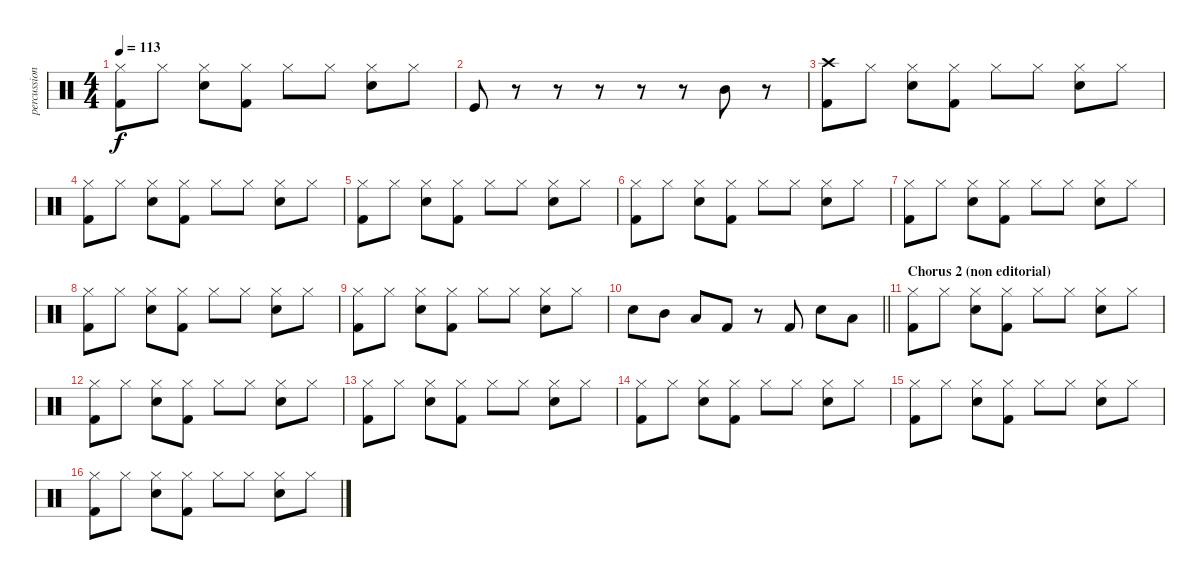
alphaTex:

\track ("percussion" "percussion") {instrument percussion}
\staff {score}
\articulation defaults
\ts (4 4)
\tempo 113
\clef neutral
\ks c
("Hi-Hat (closed)" "Kick (hit) 2").8{dy f} "Hi-Hat (closed)".8 ("Snare (hit) 2" "Hi-Hat (closed)").8 ("Hi-Hat (closed)" "Kick (hit) 2").8 "Hi-Hat (closed)".8 "Hi-Hat (closed)".8 ("Snare (hit) 2" "Hi-Hat (closed)").8 "Hi-Hat (closed)".8 |
"Kick (hit)".8 r.8 r.8 r.8 r.8 r.8 "Mid Tom (hit)".8 r.8 |
("Crash high (hit)" "Kick (hit) 2").8 "Hi-Hat (closed)".8 ("Snare (hit) 2" "Hi-Hat (closed)").8 ("Hi-Hat (closed)" "Kick (hit) 2").8 "Hi-Hat (closed)".8 "Hi-Hat (closed)".8 ("Snare (hit) 2" "Hi-Hat (closed)").8 "Hi-Hat (closed)".8 |
("Hi-Hat (closed)" "Kick (hit) 2").8 "Hi-Hat (closed)".8 ("Snare (hit) 2" "Hi-Hat (closed)").8 ("Hi-Hat (closed)" "Kick (hit) 2").8 "Hi-Hat (closed)".8 "Hi-Hat (closed)".8 ("Snare (hit) 2" "Hi-Hat (closed)").8 "Hi-Hat (closed)".8 |
("Hi-Hat (closed)" "Kick (hit) 2").8 "Hi-Hat (closed)".8 ("Snare (hit) 2" "Hi-Hat (closed)").8 ("Hi-Hat (closed)" "Kick (hit) 2").8 "Hi-Hat (closed)".8 "Hi-Hat (closed)".8 ("Snare (hit) 2" "Hi-Hat (closed)").8 "Hi-Hat (closed)".8 |
("Hi-Hat (closed)" "Kick (hit) 2").8 "Hi-Hat (closed)".8 ("Snare (hit) 2" "Hi-Hat (closed)").8 ("Hi-Hat (closed)" "Kick (hit) 2").8 "Hi-Hat (closed)".8 "Hi-Hat (closed)".8 ("Snare (hit) 2" "Hi-Hat (closed)").8 "Hi-Hat (closed)".8 |
("Hi-Hat (closed)" "Kick (hit) 2").8 "Hi-Hat (closed)".8 ("Snare (hit) 2" "Hi-Hat (closed)").8 ("Hi-Hat (closed)" "Kick (hit) 2").8 "Hi-Hat (closed)".8 "Hi-Hat (closed)".8 ("Snare (hit) 2" "Hi-Hat (closed)").8 "Hi-Hat (closed)".8 |
("Hi-Hat (closed)" "Kick (hit) 2").8 "Hi-Hat (closed)".8 ("Snare (hit) 2" "Hi-Hat (closed)").8 ("Hi-Hat (closed)" "Kick (hit) 2").8 "Hi-Hat (closed)".8 "Hi-Hat (closed)".8 ("Snare (hit) 2" "Hi-Hat (closed)").8 "Hi-Hat (closed)".8 |
("Hi-Hat (closed)" "Kick (hit) 2").8 "Hi-Hat (closed)".8 ("Snare (hit) 2" "Hi-Hat (closed)").8 ("Hi-Hat (closed)" "Kick (hit) 2").8 "Hi-Hat (closed)".8 "Hi-Hat (closed)".8 ("Snare (hit) 2" "Hi-Hat (closed)").8 "Hi-Hat (closed)".8 |
\barLineRight lightlight "Snare (hit) 2".8 "Mid Tom (hit)".8 "Low Tom (hit)".8 "Kick (hit) 2".8
r.8 "Kick (hit) 2".8 "Snare (hit) 2".8 "Low Tom (hit)".8 |
\section ("" "Chorus 2 (non editorial)")
("Hi-Hat (closed)" "Kick (hit) 2").8 "Hi-Hat (closed)".8 ("Snare (hit) 2" "Hi-Hat (closed)").8 ("Hi-Hat (closed)" "Kick (hit) 2").8 "Hi-Hat (closed)".8 "Hi-Hat (closed)".8 ("Snare (hit) 2" "Hi-Hat (closed)").8 "Hi-Hat (closed)".8 |
("Hi-Hat (closed)" "Kick (hit) 2").8 "Hi-Hat (closed)".8 ("Snare (hit) 2" "Hi-Hat (closed)").8 ("Hi-Hat (closed)" "Kick (hit) 2").8 "Hi-Hat (closed)".8 "Hi-Hat (closed)".8 ("Snare (hit) 2" "Hi-Hat (closed)").8 "Hi-Hat (closed)".8 |
("Hi-Hat (closed)" "Kick (hit) 2").8 "Hi-Hat (closed)".8 ("Snare (hit) 2" "Hi-Hat (closed)").8 ("Hi-Hat (closed)" "Kick (hit) 2").8 "Hi-Hat (closed)".8 "Hi-Hat (closed)".8 ("Snare (hit) 2" "Hi-Hat (closed)").8 "Hi-Hat (closed)".8 |
("Hi-Hat (closed)" "Kick (hit) 2").8 "Hi-Hat (closed)".8 ("Snare (hit) 2" "Hi-Hat (closed)").8 ("Hi-Hat (closed)" "Kick (hit) 2").8 "Hi-Hat (closed)".8 "Hi-Hat (closed)".8 ("Snare (hit) 2" "Hi-Hat (closed)").8 "Hi-Hat (closed)".8 |
("Hi-Hat (closed)" "Kick (hit) 2").8 "Hi-Hat (closed)".8 ("Snare (hit) 2" "Hi-Hat (closed)").8 ("Hi-Hat (closed)" "Kick (hit) 2").8 "Hi-Hat (closed)".8 "Hi-Hat (closed)".8 ("Snare (hit) 2" "Hi-Hat (closed)").8 "Hi-Hat (closed)".8 |
("Hi-Hat (closed)" "Kick (hit) 2").8 "Hi-Hat (closed)".8 ("Snare (hit) 2" "Hi-Hat (closed)").8 ("Hi-Hat (closed)" "Kick (hit) 2").8 "Hi-Hat (closed)".8 "Hi-Hat (closed)".8 ("Snare (hit) 2" "Hi-Hat (closed)").8 "Hi-Hat (closed)".8
